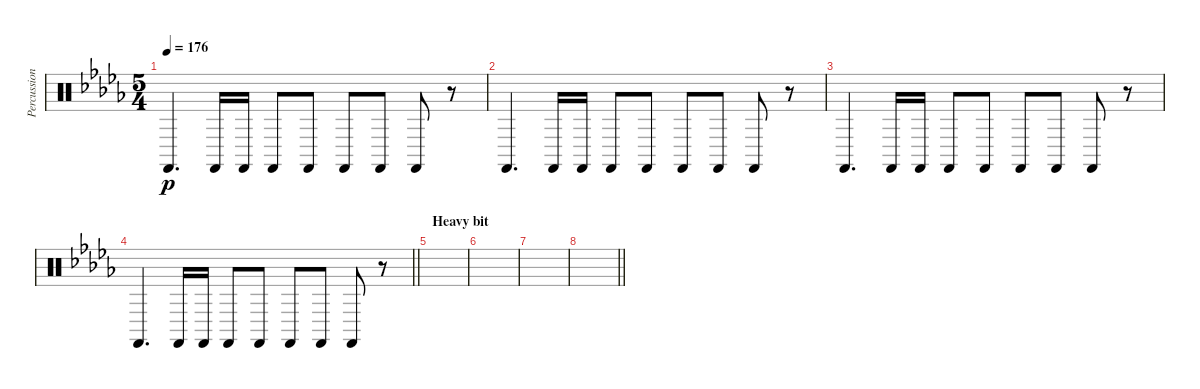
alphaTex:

\track ("Percussion" "Percussion") {instrument percussion}
\staff {score}
\articulation defaults
\ts (5 4)
\tempo 176
\clef neutral
\ks db "Castanets (hit)".4{d dy p} "Castanets (hit)".16 "Castanets (hit)".16 "Castanets (hit)".8 "Castanets (hit)".8 "Castanets (hit)".8 "Castanets (hit)".8 "Castanets (hit)".8
r.8 |
"Castanets (hit)".4{d} "Castanets (hit)".16 "Castanets (hit)".16 "Castanets (hit)".8 "Castanets (hit)".8 "Castanets (hit)".8 "Castanets (hit)".8 "Castanets (hit)".8 r.8 |
"Castanets (hit)".4{d} "Castanets (hit)".16 "Castanets (hit)".16 "Castanets (hit)".8 "Castanets (hit)".8 "Castanets (hit)".8 "Castanets (hit)".8 "Castanets (hit)".8 r.8 |
\barLineRight lightlight "Castanets (hit)".4{d} "Castanets (hit)".16 "Castanets (hit)".16 "Castanets (hit)".8 "Castanets (hit)".8 "Castanets (hit)".8 "Castanets (hit)".8 "Castanets (hit)".8
r.8 |
\section ("" "Heavy bit")
|
|
|
\barLineRight lightlight
